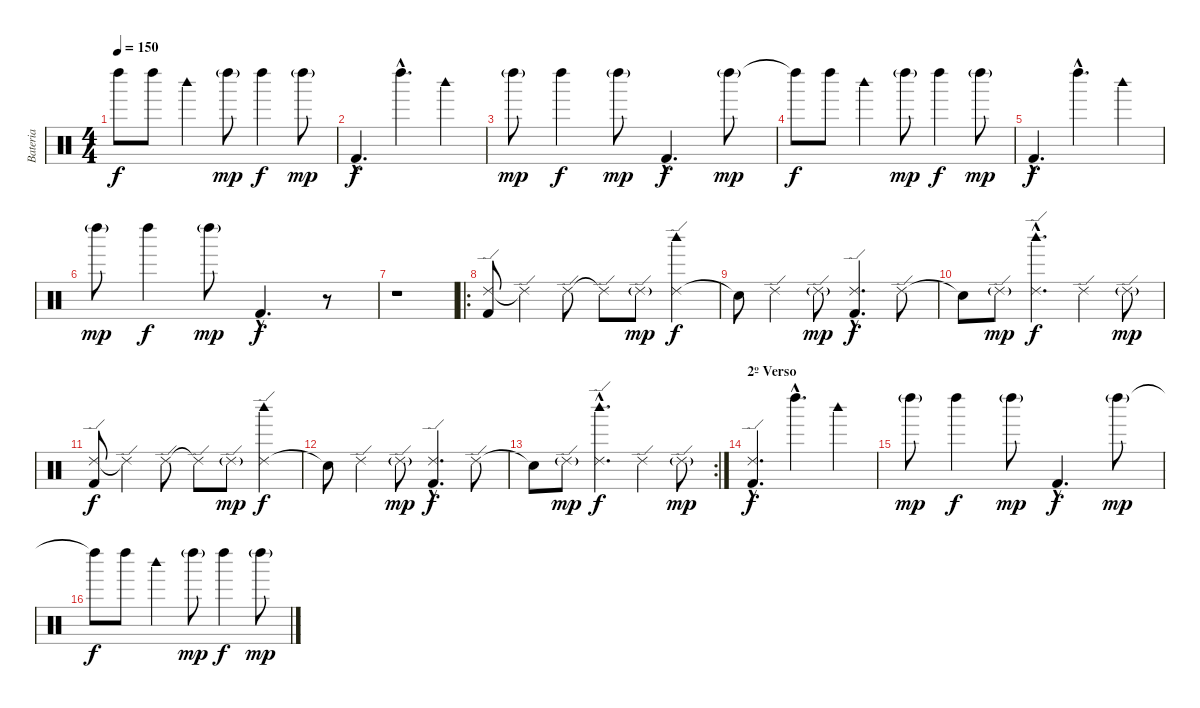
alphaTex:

\track ("Bateria" "Bateria") {instrument percussion}
\staff {score}
\articulation defaults
\ts (4 4)
\tempo 150
\clef neutral
\ks c "Left Maraca (hit)"{t}.8{dy f} "Left Maraca (hit)".8 "Woodblock high (hit)".4 "Left Maraca (hit)"{g}.8{dy mp} "Left Maraca (hit)".4{dy f} "Left Maraca (hit)"{g}.8{dy mp}
|
"Kick (hit) 2"{hac}.4{d dy f} "Left Maraca (hit)"{hac}.4{d} "Woodblock high (hit)".4 |
"Left Maraca (hit)"{g}.8{dy mp} "Left Maraca (hit)".4{dy f} "Left Maraca (hit)"{g}.8{dy mp} "Kick (hit) 2"{hac}.4{d dy f} "Left Maraca (hit)"{g}.8{dy mp} |
"Left Maraca (hit)"{t}.8{dy f} "Left Maraca (hit)".8 "Woodblock high (hit)".4 "Left Maraca (hit)"{g}.8{dy mp} "Left Maraca (hit)".4{dy f} "Left Maraca (hit)"{g}.8{dy mp} |
"Kick (hit) 2"{hac}.4{d dy f} "Left Maraca (hit)"{hac}.4{d} "Woodblock high (hit)".4 |
"Left Maraca (hit)"{g}.8{dy mp} "Left Maraca (hit)".4{dy f} "Left Maraca (hit)"{g}.8{dy mp} "Kick (hit) 2"{hac}.4{d dy f} r.8 |
r.1 |
\ro
("Ride (edge) 2" "Kick (hit) 2").8 "Ride (edge) 2"{t}.4 "Ride (edge) 2".8 "Ride (edge) 2"{t}.8 "Ride (edge) 2"{g}.8{dy mp} ("Ride (edge) 2" "Woodblock high (hit)").4{dy f} |
"Snare (hit)"{t}.8 "Ride (edge) 2".4 "Ride (edge) 2"{g}.8{dy mp} ("Ride (edge) 2"{hac} "Kick (hit) 2"{hac}).4{d dy f} "Ride (edge) 2".8 |
"Snare (hit)"{t}.8 "Ride (edge) 2"{g}.8{dy mp} ("Ride (edge) 2"{hac} "Woodblock high (hit)"{hac}).4{d dy f} "Ride (edge) 2".4 "Ride (edge) 2"{g}.8{dy mp} |
("Ride (edge) 2" "Kick (hit) 2").8{dy f} "Ride (edge) 2"{t}.4 "Ride (edge) 2".8 "Ride (edge) 2"{t}.8 "Ride (edge) 2"{g}.8{dy mp} ("Ride (edge) 2" "Woodblock high (hit)").4{dy f} |
"Snare (hit)"{t}.8 "Ride (edge) 2".4 "Ride (edge) 2"{g}.8{dy mp} ("Ride (edge) 2"{hac} "Kick (hit) 2"{hac}).4{d dy f} "Ride (edge) 2".8 |
\rc 2 "Snare (hit)"{t}.8 "Ride (edge) 2"{g}.8{dy mp}
("Ride (edge) 2"{hac} "Woodblock high (hit)"{hac}).4{d dy f} "Ride (edge) 2".4 "Ride (edge) 2"{g}.8{dy mp} |
\section ("" "2º Verso")
("Ride (edge) 2"{hac} "Kick (hit) 2"{hac}).4{d dy f} "Left Maraca (hit)"{hac}.4{d} "Woodblock high (hit)".4 |
"Left Maraca (hit)"{g}.8{dy mp} "Left Maraca (hit)".4{dy f} "Left Maraca (hit)"{g}.8{dy mp} "Kick (hit) 2"{hac}.4{d dy f} "Left Maraca (hit)"{g}.8{dy mp} |
"Left Maraca (hit)"{t}.8{dy f} "Left Maraca (hit)".8 "Woodblock high (hit)".4 "Left Maraca (hit)"{g}.8{dy mp} "Left Maraca (hit)".4{dy f} "Left Maraca (hit)"{g}.8{dy mp}
